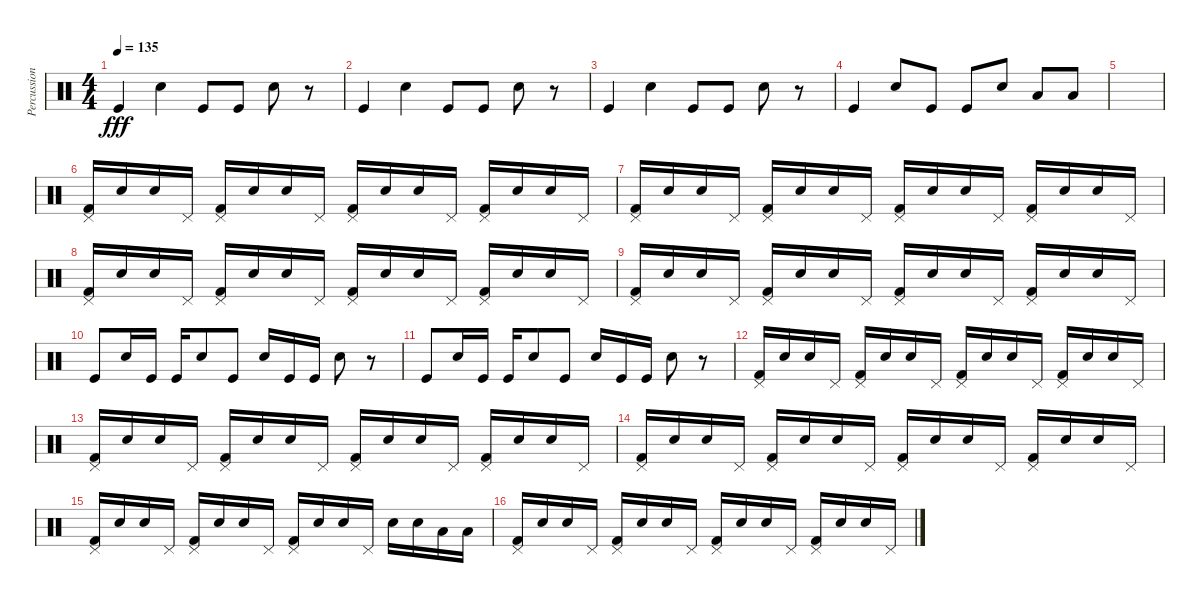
\track ("Percussion" "Percussion") {instrument percussion}
\staff {score}
\articulation defaults
\ts (4 4)
\tempo 135
\clef neutral
\ks c "Kick (hit)".4{dy fff} "Snare (hit) 2".4 "Kick (hit)".8 "Kick (hit)".8 "Snare (hit) 2".8
r.8 |
"Kick (hit)".4 "Snare (hit) 2".4 "Kick (hit)".8 "Kick (hit)".8 "Snare (hit) 2".8 r.8 |
"Kick (hit)".4 "Snare (hit) 2".4 "Kick (hit)".8 "Kick (hit)".8 "Snare (hit) 2".8 r.8 |
"Kick (hit)".4 "Snare (hit) 2".8 "Kick (hit)".8 "Kick (hit)".8 "Snare (hit) 2".8 "Low Tom (hit)".8 "Low Tom (hit)".8 |
|
("Pedal Hi-Hat (hit)" "Kick (hit) 2").16 "Snare (hit) 2".16 "Snare (hit) 2".16 "Pedal Hi-Hat (hit)".16 ("Pedal Hi-Hat (hit)" "Kick (hit) 2").16 "Snare (hit) 2".16 "Snare (hit) 2".16 "Pedal Hi-Hat (hit)".16 ("Pedal Hi-Hat (hit)" "Kick (hit) 2").16 "Snare (hit) 2".16 "Snare (hit) 2".16 "Pedal Hi-Hat (hit)".16 ("Pedal Hi-Hat (hit)" "Kick (hit) 2").16 "Snare (hit) 2".16 "Snare (hit) 2".16 "Pedal Hi-Hat (hit)".16 |
("Pedal Hi-Hat (hit)" "Kick (hit) 2").16 "Snare (hit) 2".16 "Snare (hit) 2".16 "Pedal Hi-Hat (hit)".16 ("Pedal Hi-Hat (hit)" "Kick (hit) 2").16 "Snare (hit) 2".16 "Snare (hit) 2".16 "Pedal Hi-Hat (hit)".16 ("Pedal Hi-Hat (hit)" "Kick (hit) 2").16 "Snare (hit) 2".16 "Snare (hit) 2".16 "Pedal Hi-Hat (hit)".16 ("Pedal Hi-Hat (hit)" "Kick (hit) 2").16 "Snare (hit) 2".16 "Snare (hit) 2".16 "Pedal Hi-Hat (hit)".16 |
("Pedal Hi-Hat (hit)" "Kick (hit) 2").16 "Snare (hit) 2".16 "Snare (hit) 2".16 "Pedal Hi-Hat (hit)".16 ("Pedal Hi-Hat (hit)" "Kick (hit) 2").16 "Snare (hit) 2".16 "Snare (hit) 2".16 "Pedal Hi-Hat (hit)".16 ("Pedal Hi-Hat (hit)" "Kick (hit) 2").16 "Snare (hit) 2".16 "Snare (hit) 2".16 "Pedal Hi-Hat (hit)".16 ("Pedal Hi-Hat (hit)" "Kick (hit) 2").16 "Snare (hit) 2".16 "Snare (hit) 2".16 "Pedal Hi-Hat (hit)".16 |
("Pedal Hi-Hat (hit)" "Kick (hit) 2").16 "Snare (hit) 2".16 "Snare (hit) 2".16 "Pedal Hi-Hat (hit)".16 ("Pedal Hi-Hat (hit)" "Kick (hit) 2").16 "Snare (hit) 2".16 "Snare (hit) 2".16 "Pedal Hi-Hat (hit)".16 ("Pedal Hi-Hat (hit)" "Kick (hit) 2").16 "Snare (hit) 2".16 "Snare (hit) 2".16 "Pedal Hi-Hat (hit)".16 ("Pedal Hi-Hat (hit)" "Kick (hit) 2").16 "Snare (hit) 2".16 "Snare (hit) 2".16 "Pedal Hi-Hat (hit)".16 |
"Kick (hit)".8 "Snare (hit) 2".16 "Kick (hit)".16 "Kick (hit)".16 "Snare (hit) 2".8 "Kick (hit)".8 "Snare (hit) 2".16 "Kick (hit)".16 "Kick (hit)".16 "Snare (hit) 2".8 r.8 |
"Kick (hit)".8 "Snare (hit) 2".16 "Kick (hit)".16 "Kick (hit)".16 "Snare (hit) 2".8 "Kick (hit)".8 "Snare (hit) 2".16 "Kick (hit)".16 "Kick (hit)".16 "Snare (hit) 2".8 r.8 |
("Pedal Hi-Hat (hit)" "Kick (hit) 2").16 "Snare (hit) 2".16 "Snare (hit) 2".16 "Pedal Hi-Hat (hit)".16 ("Pedal Hi-Hat (hit)" "Kick (hit) 2").16 "Snare (hit) 2".16 "Snare (hit) 2".16 "Pedal Hi-Hat (hit)".16 ("Pedal Hi-Hat (hit)" "Kick (hit) 2").16 "Snare (hit) 2".16 "Snare (hit) 2".16 "Pedal Hi-Hat (hit)".16 ("Pedal Hi-Hat (hit)" "Kick (hit) 2").16 "Snare (hit) 2".16 "Snare (hit) 2".16 "Pedal Hi-Hat (hit)".16 |
("Pedal Hi-Hat (hit)" "Kick (hit) 2").16 "Snare (hit) 2".16 "Snare (hit) 2".16 "Pedal Hi-Hat (hit)".16 ("Pedal Hi-Hat (hit)" "Kick (hit) 2").16 "Snare (hit) 2".16 "Snare (hit) 2".16 "Pedal Hi-Hat (hit)".16 ("Pedal Hi-Hat (hit)" "Kick (hit) 2").16 "Snare (hit) 2".16 "Snare (hit) 2".16 "Pedal Hi-Hat (hit)".16 ("Pedal Hi-Hat (hit)" "Kick (hit) 2").16 "Snare (hit) 2".16 "Snare (hit) 2".16 "Pedal Hi-Hat (hit)".16 |
("Pedal Hi-Hat (hit)" "Kick (hit) 2").16 "Snare (hit) 2".16 "Snare (hit) 2".16 "Pedal Hi-Hat (hit)".16 ("Pedal Hi-Hat (hit)" "Kick (hit) 2").16 "Snare (hit) 2".16 "Snare (hit) 2".16 "Pedal Hi-Hat (hit)".16 ("Pedal Hi-Hat (hit)" "Kick (hit) 2").16 "Snare (hit) 2".16 "Snare (hit) 2".16 "Pedal Hi-Hat (hit)".16 ("Pedal Hi-Hat (hit)" "Kick (hit) 2").16 "Snare (hit) 2".16 "Snare (hit) 2".16 "Pedal Hi-Hat (hit)".16 |
("Pedal Hi-Hat (hit)" "Kick (hit) 2").16 "Snare (hit) 2".16 "Snare (hit) 2".16 "Pedal Hi-Hat (hit)".16 ("Pedal Hi-Hat (hit)" "Kick (hit) 2").16 "Snare (hit) 2".16 "Snare (hit) 2".16 "Pedal Hi-Hat (hit)".16 ("Pedal Hi-Hat (hit)" "Kick (hit) 2").16 "Snare (hit) 2".16 "Snare (hit) 2".16 "Pedal Hi-Hat (hit)".16 "Snare (hit) 2".16 "Snare (hit) 2".16 "Low Tom (hit)".16 "Low Tom (hit)".16 |
("Pedal Hi-Hat (hit)" "Kick (hit) 2").16 "Snare (hit) 2".16 "Snare (hit) 2".16 "Pedal Hi-Hat (hit)".16 ("Pedal Hi-Hat (hit)" "Kick (hit) 2").16 "Snare (hit) 2".16 "Snare (hit) 2".16 "Pedal Hi-Hat (hit)".16 ("Pedal Hi-Hat (hit)" "Kick (hit) 2").16 "Snare (hit) 2".16 "Snare (hit) 2".16 "Pedal Hi-Hat (hit)".16 ("Pedal Hi-Hat (hit)" "Kick (hit) 2").16 "Snare (hit) 2".16 "Snare (hit) 2".16 "Pedal Hi-Hat (hit)".16
